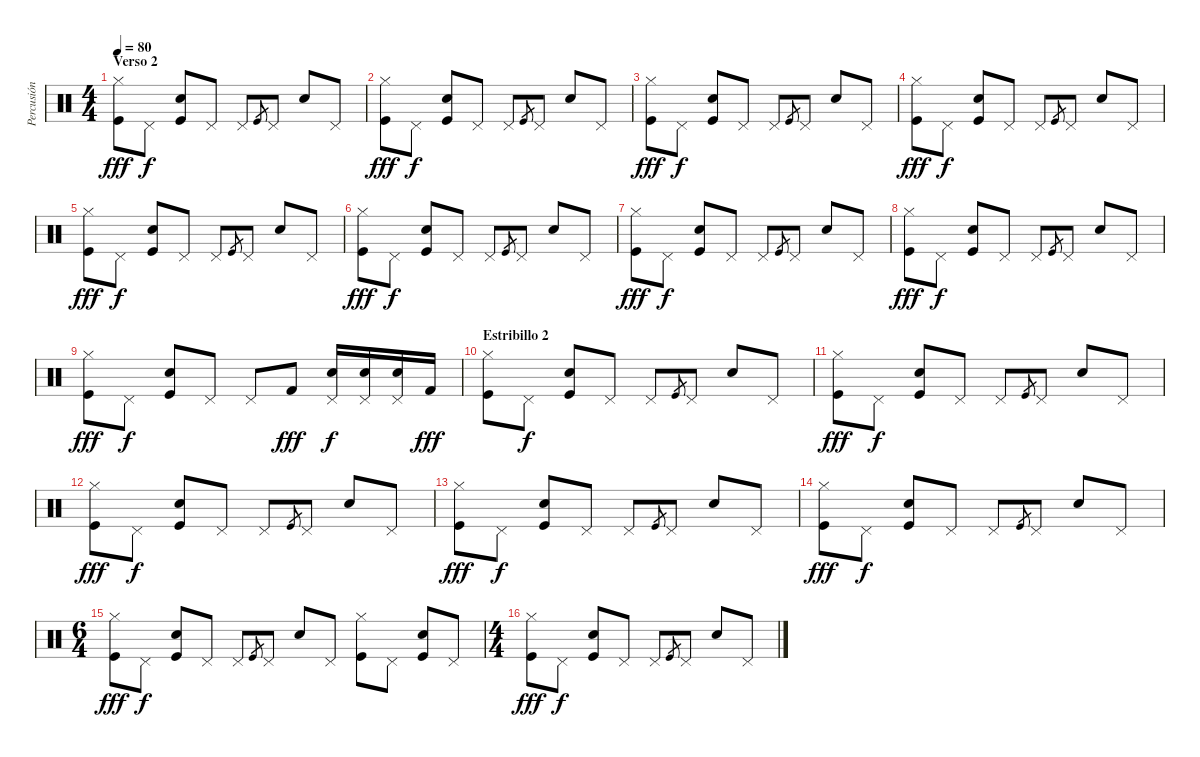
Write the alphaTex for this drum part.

\track ("Percusión (Percussion)" "Percusión ") {instrument percussion}
\staff {score}
\articulation defaults
\ts (4 4)
\section ("" "Verso 2")
\tempo 80
\clef neutral
\ks c
("Kick (hit)" "Hi-Hat (closed)").8{dy fff} "Pedal Hi-Hat (hit)".8{dy f} ("Snare (hit) 2" "Kick (hit)").8 "Pedal Hi-Hat (hit)".8 "Pedal Hi-Hat (hit)".8 "Kick (hit)".8{gr} "Pedal Hi-Hat (hit)".8 "Snare (hit) 2".8 "Pedal Hi-Hat (hit)".8 |
("Kick (hit)" "Hi-Hat (closed)").8{dy fff} "Pedal Hi-Hat (hit)".8{dy f} ("Snare (hit) 2" "Kick (hit)").8 "Pedal Hi-Hat (hit)".8 "Pedal Hi-Hat (hit)".8 "Kick (hit)".8{gr} "Pedal Hi-Hat (hit)".8 "Snare (hit) 2".8 "Pedal Hi-Hat (hit)".8 |
("Kick (hit)" "Hi-Hat (closed)").8{dy fff} "Pedal Hi-Hat (hit)".8{dy f} ("Snare (hit) 2" "Kick (hit)").8 "Pedal Hi-Hat (hit)".8 "Pedal Hi-Hat (hit)".8 "Kick (hit)".8{gr} "Pedal Hi-Hat (hit)".8 "Snare (hit) 2".8 "Pedal Hi-Hat (hit)".8 |
("Kick (hit)" "Hi-Hat (closed)").8{dy fff} "Pedal Hi-Hat (hit)".8{dy f} ("Snare (hit) 2" "Kick (hit)").8 "Pedal Hi-Hat (hit)".8 "Pedal Hi-Hat (hit)".8 "Kick (hit)".8{gr} "Pedal Hi-Hat (hit)".8 "Snare (hit) 2".8 "Pedal Hi-Hat (hit)".8 |
("Kick (hit)" "Hi-Hat (closed)").8{dy fff} "Pedal Hi-Hat (hit)".8{dy f} ("Snare (hit) 2" "Kick (hit)").8 "Pedal Hi-Hat (hit)".8 "Pedal Hi-Hat (hit)".8 "Kick (hit)".8{gr} "Pedal Hi-Hat (hit)".8 "Snare (hit) 2".8 "Pedal Hi-Hat (hit)".8 |
("Kick (hit)" "Hi-Hat (closed)").8{dy fff} "Pedal Hi-Hat (hit)".8{dy f} ("Snare (hit) 2" "Kick (hit)").8 "Pedal Hi-Hat (hit)".8 "Pedal Hi-Hat (hit)".8 "Kick (hit)".8{gr} "Pedal Hi-Hat (hit)".8 "Snare (hit) 2".8 "Pedal Hi-Hat (hit)".8 |
("Kick (hit)" "Hi-Hat (closed)").8{dy fff} "Pedal Hi-Hat (hit)".8{dy f} ("Snare (hit) 2" "Kick (hit)").8 "Pedal Hi-Hat (hit)".8 "Pedal Hi-Hat (hit)".8 "Kick (hit)".8{gr} "Pedal Hi-Hat (hit)".8 "Snare (hit) 2".8 "Pedal Hi-Hat (hit)".8 |
("Kick (hit)" "Hi-Hat (closed)").8{dy fff} "Pedal Hi-Hat (hit)".8{dy f} ("Snare (hit) 2" "Kick (hit)").8 "Pedal Hi-Hat (hit)".8 "Pedal Hi-Hat (hit)".8 "Kick (hit)".8{gr} "Pedal Hi-Hat (hit)".8 "Snare (hit) 2".8 "Pedal Hi-Hat (hit)".8 |
("Kick (hit)" "Hi-Hat (closed)").8{dy fff} "Pedal Hi-Hat (hit)".8{dy f} ("Snare (hit) 2" "Kick (hit)").8 "Pedal Hi-Hat (hit)".8 "Pedal Hi-Hat (hit)".8 "Kick (hit) 2".8{dy fff} ("Snare (hit) 2" "Pedal Hi-Hat (hit)").16{dy f} ("Snare (hit) 2" "Pedal Hi-Hat (hit)").16 ("Snare (hit) 2" "Pedal Hi-Hat (hit)").16 "Kick (hit) 2".16{dy fff} |
\section ("" "Estribillo 2")
("Kick (hit)" "Hi-Hat (closed)").8 "Pedal Hi-Hat (hit)".8{dy f} ("Snare (hit) 2" "Kick (hit)").8 "Pedal Hi-Hat (hit)".8 "Pedal Hi-Hat (hit)".8 "Kick (hit)".8{gr} "Pedal Hi-Hat (hit)".8 "Snare (hit) 2".8 "Pedal Hi-Hat (hit)".8 |
("Kick (hit)" "Hi-Hat (closed)").8{dy fff} "Pedal Hi-Hat (hit)".8{dy f} ("Snare (hit) 2" "Kick (hit)").8 "Pedal Hi-Hat (hit)".8 "Pedal Hi-Hat (hit)".8 "Kick (hit)".8{gr} "Pedal Hi-Hat (hit)".8 "Snare (hit) 2".8 "Pedal Hi-Hat (hit)".8 |
("Kick (hit)" "Hi-Hat (closed)").8{dy fff} "Pedal Hi-Hat (hit)".8{dy f} ("Snare (hit) 2" "Kick (hit)").8 "Pedal Hi-Hat (hit)".8 "Pedal Hi-Hat (hit)".8 "Kick (hit)".8{gr} "Pedal Hi-Hat (hit)".8 "Snare (hit) 2".8 "Pedal Hi-Hat (hit)".8 |
("Kick (hit)" "Hi-Hat (closed)").8{dy fff} "Pedal Hi-Hat (hit)".8{dy f} ("Snare (hit) 2" "Kick (hit)").8 "Pedal Hi-Hat (hit)".8 "Pedal Hi-Hat (hit)".8 "Kick (hit)".8{gr} "Pedal Hi-Hat (hit)".8 "Snare (hit) 2".8 "Pedal Hi-Hat (hit)".8 |
("Kick (hit)" "Hi-Hat (closed)").8{dy fff} "Pedal Hi-Hat (hit)".8{dy f} ("Snare (hit) 2" "Kick (hit)").8 "Pedal Hi-Hat (hit)".8 "Pedal Hi-Hat (hit)".8 "Kick (hit)".8{gr} "Pedal Hi-Hat (hit)".8 "Snare (hit) 2".8 "Pedal Hi-Hat (hit)".8 |
\ts (6 4)
("Kick (hit)" "Hi-Hat (closed)").8{dy fff} "Pedal Hi-Hat (hit)".8{dy f} ("Snare (hit) 2" "Kick (hit)").8 "Pedal Hi-Hat (hit)".8 "Pedal Hi-Hat (hit)".8 "Kick (hit)".8{gr} "Pedal Hi-Hat (hit)".8 "Snare (hit) 2".8 "Pedal Hi-Hat (hit)".8 ("Kick (hit)" "Hi-Hat (closed)").8 "Pedal Hi-Hat (hit)".8 ("Snare (hit) 2" "Kick (hit)").8 "Pedal Hi-Hat (hit)".8 |
\ts (4 4)
("Kick (hit)" "Hi-Hat (closed)").8{dy fff} "Pedal Hi-Hat (hit)".8{dy f} ("Snare (hit) 2" "Kick (hit)").8 "Pedal Hi-Hat (hit)".8 "Pedal Hi-Hat (hit)".8 "Kick (hit)".8{gr} "Pedal Hi-Hat (hit)".8 "Snare (hit) 2".8 "Pedal Hi-Hat (hit)".8
